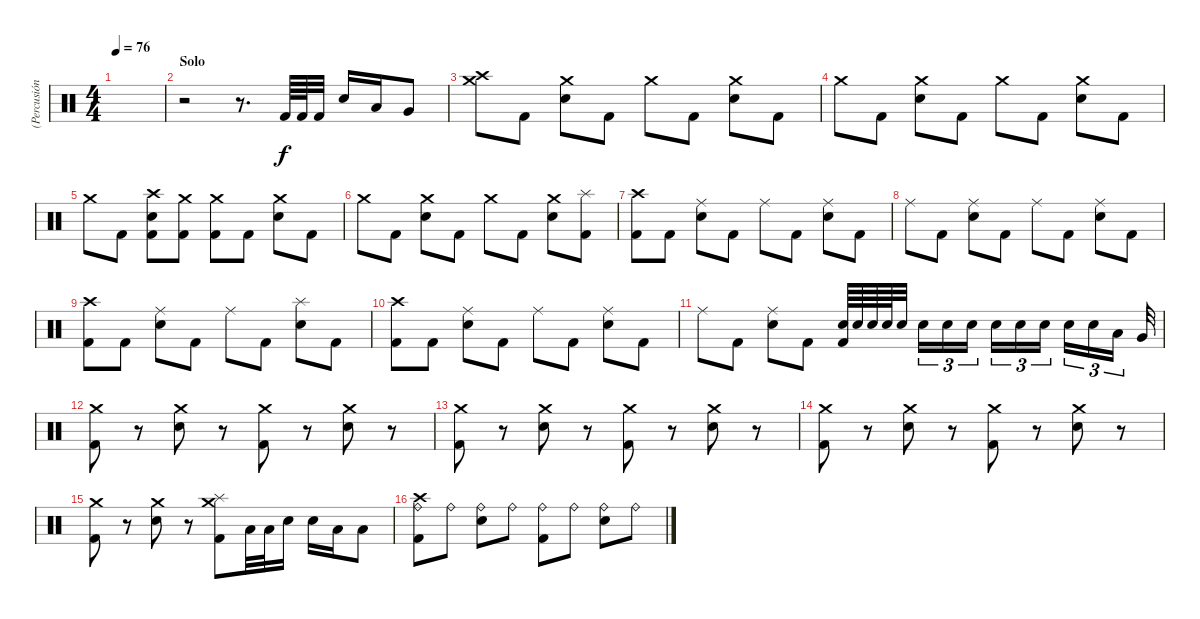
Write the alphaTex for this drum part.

\track ("(Percusión)" "(Percusión") {instrument percussion}
\staff {score}
\articulation defaults
\ts (4 4)
\tempo 76
\clef neutral
\ks c
|
\section ("" "Solo")
r.2 r.8{d} "Kick (hit) 2".64 "Kick (hit) 2".64 "Kick (hit) 2".32 "Snare (hit) 2".16 "Low Tom (hit)".16 "Very Low Tom (hit)".8 |
("Crash medium (hit)" "Crash high (hit)").8 "Kick (hit) 2".8 ("Crash medium (hit)" "Snare (hit) 2").8 "Kick (hit) 2".8 "Crash medium (hit)".8 "Kick (hit) 2".8 ("Crash medium (hit)" "Snare (hit) 2").8 "Kick (hit) 2".8 |
"Crash medium (hit)".8 "Kick (hit) 2".8 ("Crash medium (hit)" "Snare (hit) 2").8 "Kick (hit) 2".8 "Crash medium (hit)".8 "Kick (hit) 2".8 ("Crash medium (hit)" "Snare (hit) 2").8 "Kick (hit) 2".8 |
"Crash medium (hit)".8 "Kick (hit) 2".8 ("Crash high (hit)" "Snare (hit) 2" "Kick (hit) 2").8 ("Crash medium (hit)" "Kick (hit) 2").8 ("Crash medium (hit)" "Kick (hit) 2").8 "Kick (hit) 2".8 ("Crash medium (hit)" "Snare (hit) 2").8 "Kick (hit) 2".8 |
"Crash medium (hit)".8 "Kick (hit) 2".8 ("Crash medium (hit)" "Snare (hit) 2").8 "Kick (hit) 2".8 "Crash medium (hit)".8 "Kick (hit) 2".8 ("Crash medium (hit)" "Snare (hit) 2").8 ("Splash (hit)" "Kick (hit) 2").8 |
("Crash high (hit)" "Kick (hit) 2").8 "Kick (hit) 2".8 ("Ride (middle)" "Snare (hit) 2").8 "Kick (hit) 2".8 "Ride (middle)".8 "Kick (hit) 2".8 ("Ride (middle)" "Snare (hit) 2").8 "Kick (hit) 2".8 |
"Ride (middle)".8 "Kick (hit) 2".8 ("Ride (middle)" "Snare (hit) 2").8 "Kick (hit) 2".8 "Ride (middle)".8 "Kick (hit) 2".8 ("Ride (middle)" "Snare (hit) 2").8 "Kick (hit) 2".8 |
("Crash high (hit)" "Kick (hit) 2").8 "Kick (hit) 2".8 ("Ride (middle)" "Snare (hit) 2").8 "Kick (hit) 2".8 "Ride (middle)".8 "Kick (hit) 2".8 ("Splash (hit)" "Snare (hit) 2").8 "Kick (hit) 2".8 |
("Crash high (hit)" "Kick (hit) 2").8 "Kick (hit) 2".8 ("Ride (middle)" "Snare (hit) 2").8 "Kick (hit) 2".8 "Ride (middle)".8 "Kick (hit) 2".8 ("Ride (middle)" "Snare (hit) 2").8 "Kick (hit) 2".8 |
"Ride (middle)".8 "Kick (hit) 2".8 ("Ride (middle)" "Snare (hit) 2").8 "Kick (hit) 2".8 ("Snare (hit) 2" "Kick (hit) 2").64{volume 7} "Snare (hit) 2".64{volume 16} "Snare (hit) 2".64 "Snare (hit) 2".64 "Snare (hit) 2".32 "Snare (hit) 2".16{tu (3 2)} "Snare (hit) 2".16{tu (3 2)} "Snare (hit) 2".16{tu (3 2)} "Snare (hit) 2".16{tu (3 2)} "Snare (hit) 2".16{tu (3 2)} "Snare (hit) 2".16{tu (3 2)} "Snare (hit) 2".16{tu (3 2)} "Snare (hit) 2".16{tu (3 2)} "Low Tom (hit)".16{tu (3 2)} "Very Low Tom (hit)".32 |
("Crash medium (hit)" "Kick (hit) 2").8 r.8 ("Crash medium (hit)" "Snare (hit) 2").8 r.8 ("Crash medium (hit)" "Kick (hit) 2").8 r.8 ("Crash medium (hit)" "Snare (hit) 2").8 r.8 |
("Crash medium (hit)" "Kick (hit) 2").8 r.8 ("Crash medium (hit)" "Snare (hit) 2").8 r.8 ("Crash medium (hit)" "Kick (hit) 2").8 r.8 ("Crash medium (hit)" "Snare (hit) 2").8 r.8 |
("Crash medium (hit)" "Kick (hit) 2").8 r.8 ("Crash medium (hit)" "Snare (hit) 2").8 r.8 ("Crash medium (hit)" "Kick (hit) 2").8 r.8 ("Crash medium (hit)" "Snare (hit) 2").8 r.8 |
("Crash medium (hit)" "Kick (hit) 2").8 r.8 ("Crash medium (hit)" "Snare (hit) 2").8 r.8 ("Crash medium (hit)" "Splash (hit)" "Kick (hit) 2").8 "Low Floor Tom (hit)".32 "Low Floor Tom (hit)".32 "Snare (hit) 2".16 "Snare (hit) 2".16 "Low Tom (hit)".16 "Low Floor Tom (hit)".8 |
("Ride (bell)" "Crash high (hit)" "Kick (hit) 2").8 "Ride (bell)".8 ("Ride (bell)" "Snare (hit) 2").8 "Ride (bell)".8 ("Ride (bell)" "Kick (hit) 2").8 "Ride (bell)".8 ("Ride (bell)" "Snare (hit) 2").8 "Ride (bell)".8
